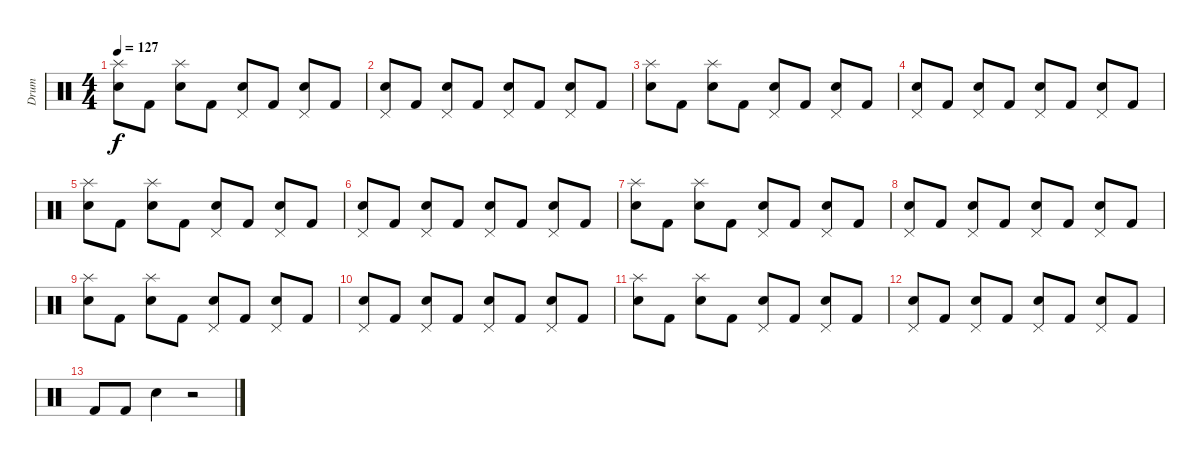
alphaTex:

\track ("Drum" "Drum") {instrument percussion}
\staff {score}
\articulation defaults
\ts (4 4)
\tempo 127
\clef neutral
\ks c
("Electric Snare (hit)" "Splash (hit)").8{dy f} "Kick (hit) 2".8 ("Electric Snare (hit)" "Splash (hit)").8 "Kick (hit) 2".8 ("Electric Snare (hit)" "Pedal Hi-Hat (hit)").8 "Kick (hit) 2".8 ("Electric Snare (hit)" "Pedal Hi-Hat (hit)").8 "Kick (hit) 2".8 |
("Electric Snare (hit)" "Pedal Hi-Hat (hit)").8 "Kick (hit) 2".8 ("Electric Snare (hit)" "Pedal Hi-Hat (hit)").8 "Kick (hit) 2".8 ("Electric Snare (hit)" "Pedal Hi-Hat (hit)").8 "Kick (hit) 2".8 ("Electric Snare (hit)" "Pedal Hi-Hat (hit)").8 "Kick (hit) 2".8 |
("Electric Snare (hit)" "Splash (hit)").8 "Kick (hit) 2".8 ("Electric Snare (hit)" "Splash (hit)").8 "Kick (hit) 2".8 ("Electric Snare (hit)" "Pedal Hi-Hat (hit)").8 "Kick (hit) 2".8 ("Electric Snare (hit)" "Pedal Hi-Hat (hit)").8 "Kick (hit) 2".8 |
("Electric Snare (hit)" "Pedal Hi-Hat (hit)").8 "Kick (hit) 2".8 ("Electric Snare (hit)" "Pedal Hi-Hat (hit)").8 "Kick (hit) 2".8 ("Electric Snare (hit)" "Pedal Hi-Hat (hit)").8 "Kick (hit) 2".8 ("Electric Snare (hit)" "Pedal Hi-Hat (hit)").8 "Kick (hit) 2".8 |
("Electric Snare (hit)" "Splash (hit)").8 "Kick (hit) 2".8 ("Electric Snare (hit)" "Splash (hit)").8 "Kick (hit) 2".8 ("Electric Snare (hit)" "Pedal Hi-Hat (hit)").8 "Kick (hit) 2".8 ("Electric Snare (hit)" "Pedal Hi-Hat (hit)").8 "Kick (hit) 2".8 |
("Electric Snare (hit)" "Pedal Hi-Hat (hit)").8 "Kick (hit) 2".8 ("Electric Snare (hit)" "Pedal Hi-Hat (hit)").8 "Kick (hit) 2".8 ("Electric Snare (hit)" "Pedal Hi-Hat (hit)").8 "Kick (hit) 2".8 ("Electric Snare (hit)" "Pedal Hi-Hat (hit)").8 "Kick (hit) 2".8 |
("Electric Snare (hit)" "Splash (hit)").8 "Kick (hit) 2".8 ("Electric Snare (hit)" "Splash (hit)").8 "Kick (hit) 2".8 ("Electric Snare (hit)" "Pedal Hi-Hat (hit)").8 "Kick (hit) 2".8 ("Electric Snare (hit)" "Pedal Hi-Hat (hit)").8 "Kick (hit) 2".8 |
("Electric Snare (hit)" "Pedal Hi-Hat (hit)").8 "Kick (hit) 2".8 ("Electric Snare (hit)" "Pedal Hi-Hat (hit)").8 "Kick (hit) 2".8 ("Electric Snare (hit)" "Pedal Hi-Hat (hit)").8 "Kick (hit) 2".8 ("Electric Snare (hit)" "Pedal Hi-Hat (hit)").8 "Kick (hit) 2".8 |
("Electric Snare (hit)" "Splash (hit)").8 "Kick (hit) 2".8 ("Electric Snare (hit)" "Splash (hit)").8 "Kick (hit) 2".8 ("Electric Snare (hit)" "Pedal Hi-Hat (hit)").8 "Kick (hit) 2".8 ("Electric Snare (hit)" "Pedal Hi-Hat (hit)").8 "Kick (hit) 2".8 |
("Electric Snare (hit)" "Pedal Hi-Hat (hit)").8 "Kick (hit) 2".8 ("Electric Snare (hit)" "Pedal Hi-Hat (hit)").8 "Kick (hit) 2".8 ("Electric Snare (hit)" "Pedal Hi-Hat (hit)").8 "Kick (hit) 2".8 ("Electric Snare (hit)" "Pedal Hi-Hat (hit)").8 "Kick (hit) 2".8 |
("Electric Snare (hit)" "Splash (hit)").8 "Kick (hit) 2".8 ("Electric Snare (hit)" "Splash (hit)").8 "Kick (hit) 2".8 ("Electric Snare (hit)" "Pedal Hi-Hat (hit)").8 "Kick (hit) 2".8 ("Electric Snare (hit)" "Pedal Hi-Hat (hit)").8 "Kick (hit) 2".8 |
("Electric Snare (hit)" "Pedal Hi-Hat (hit)").8 "Kick (hit) 2".8 ("Electric Snare (hit)" "Pedal Hi-Hat (hit)").8 "Kick (hit) 2".8 ("Electric Snare (hit)" "Pedal Hi-Hat (hit)").8 "Kick (hit) 2".8 ("Electric Snare (hit)" "Pedal Hi-Hat (hit)").8 "Kick (hit) 2".8 |
"Kick (hit) 2".8 "Kick (hit) 2".8 "Electric Snare (hit)".4 r.2
